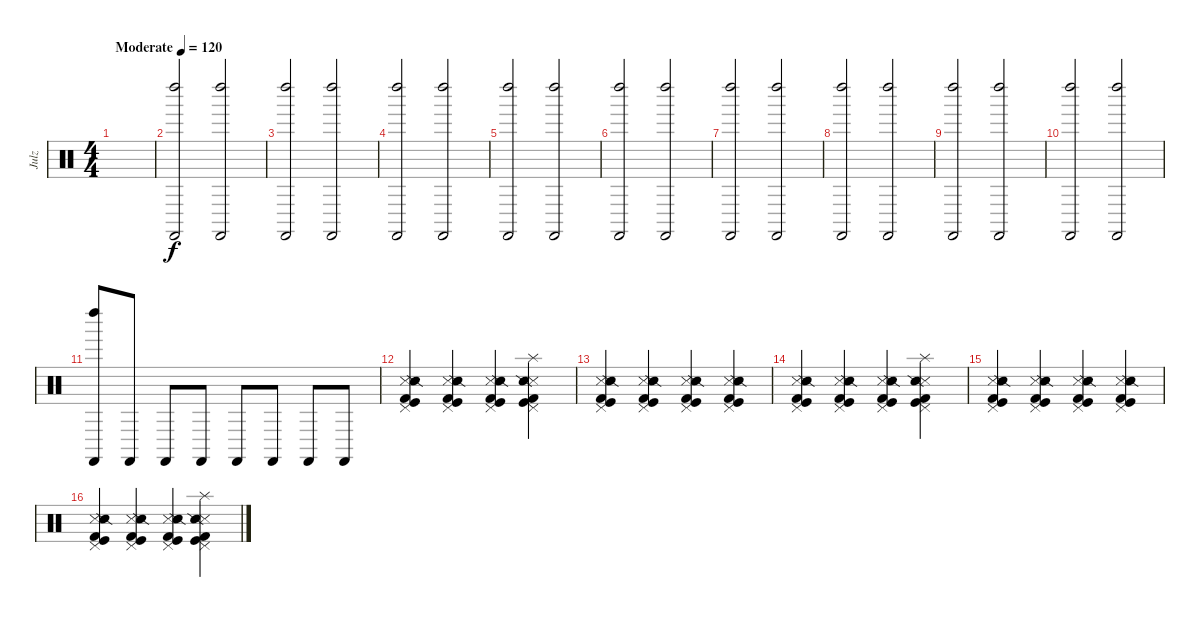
\track ("Julz" "Julz") {instrument percussion}
\staff {score}
\articulation defaults
\ts (4 4)
\tempo (120 "Moderate")
\clef neutral
\ks c
|
("Left Maraca (hit)" "Castanets (hit)").2 ("Left Maraca (hit)" "Castanets (hit)").2 |
("Left Maraca (hit)" "Castanets (hit)").2 ("Left Maraca (hit)" "Castanets (hit)").2 |
("Left Maraca (hit)" "Castanets (hit)").2 ("Left Maraca (hit)" "Castanets (hit)").2 |
("Left Maraca (hit)" "Castanets (hit)").2 ("Left Maraca (hit)" "Castanets (hit)").2 |
("Left Maraca (hit)" "Castanets (hit)").2 ("Left Maraca (hit)" "Castanets (hit)").2 |
("Left Maraca (hit)" "Castanets (hit)").2 ("Left Maraca (hit)" "Castanets (hit)").2 |
("Left Maraca (hit)" "Castanets (hit)").2 ("Left Maraca (hit)" "Castanets (hit)").2 |
("Left Maraca (hit)" "Castanets (hit)").2 ("Left Maraca (hit)" "Castanets (hit)").2 |
("Left Maraca (hit)" "Castanets (hit)").2 ("Left Maraca (hit)" "Castanets (hit)").2 |
("Left Maraca (hit)" "Castanets (hit)").8 "Castanets (hit)".8 "Castanets (hit)".8 "Castanets (hit)".8 "Castanets (hit)".8 "Castanets (hit)".8 "Castanets (hit)".8 "Castanets (hit)".8 |
("Metronome (hit)" "Snare (side stick) 2" "Pedal Hi-Hat (hit)" "Kick (hit)" "Kick (hit) 2").4 ("Metronome (hit)" "Snare (side stick) 2" "Pedal Hi-Hat (hit)" "Kick (hit)" "Kick (hit) 2").4 ("Metronome (hit)" "Snare (side stick) 2" "Pedal Hi-Hat (hit)" "Kick (hit)" "Kick (hit) 2").4 ("Splash (hit)" "Metronome (hit)" "Snare (side stick) 2" "Pedal Hi-Hat (hit)" "Kick (hit)" "Kick (hit) 2").4 |
("Metronome (hit)" "Snare (side stick) 2" "Pedal Hi-Hat (hit)" "Kick (hit)" "Kick (hit) 2").4 ("Metronome (hit)" "Snare (side stick) 2" "Pedal Hi-Hat (hit)" "Kick (hit)" "Kick (hit) 2").4 ("Metronome (hit)" "Snare (side stick) 2" "Pedal Hi-Hat (hit)" "Kick (hit)" "Kick (hit) 2").4 ("Metronome (hit)" "Snare (side stick) 2" "Pedal Hi-Hat (hit)" "Kick (hit)" "Kick (hit) 2").4 |
("Metronome (hit)" "Snare (side stick) 2" "Pedal Hi-Hat (hit)" "Kick (hit)" "Kick (hit) 2").4 ("Metronome (hit)" "Snare (side stick) 2" "Pedal Hi-Hat (hit)" "Kick (hit)" "Kick (hit) 2").4 ("Metronome (hit)" "Snare (side stick) 2" "Pedal Hi-Hat (hit)" "Kick (hit)" "Kick (hit) 2").4 ("Splash (hit)" "Metronome (hit)" "Snare (side stick) 2" "Pedal Hi-Hat (hit)" "Kick (hit)" "Kick (hit) 2").4 |
("Metronome (hit)" "Snare (side stick) 2" "Pedal Hi-Hat (hit)" "Kick (hit)" "Kick (hit) 2").4 ("Metronome (hit)" "Snare (side stick) 2" "Pedal Hi-Hat (hit)" "Kick (hit)" "Kick (hit) 2").4 ("Metronome (hit)" "Snare (side stick) 2" "Pedal Hi-Hat (hit)" "Kick (hit)" "Kick (hit) 2").4 ("Metronome (hit)" "Snare (side stick) 2" "Pedal Hi-Hat (hit)" "Kick (hit)" "Kick (hit) 2").4 |
("Metronome (hit)" "Snare (side stick) 2" "Pedal Hi-Hat (hit)" "Kick (hit)" "Kick (hit) 2").4 ("Metronome (hit)" "Snare (side stick) 2" "Pedal Hi-Hat (hit)" "Kick (hit)" "Kick (hit) 2").4 ("Metronome (hit)" "Snare (side stick) 2" "Pedal Hi-Hat (hit)" "Kick (hit)" "Kick (hit) 2").4 ("Splash (hit)" "Metronome (hit)" "Snare (side stick) 2" "Pedal Hi-Hat (hit)" "Kick (hit)" "Kick (hit) 2").4
